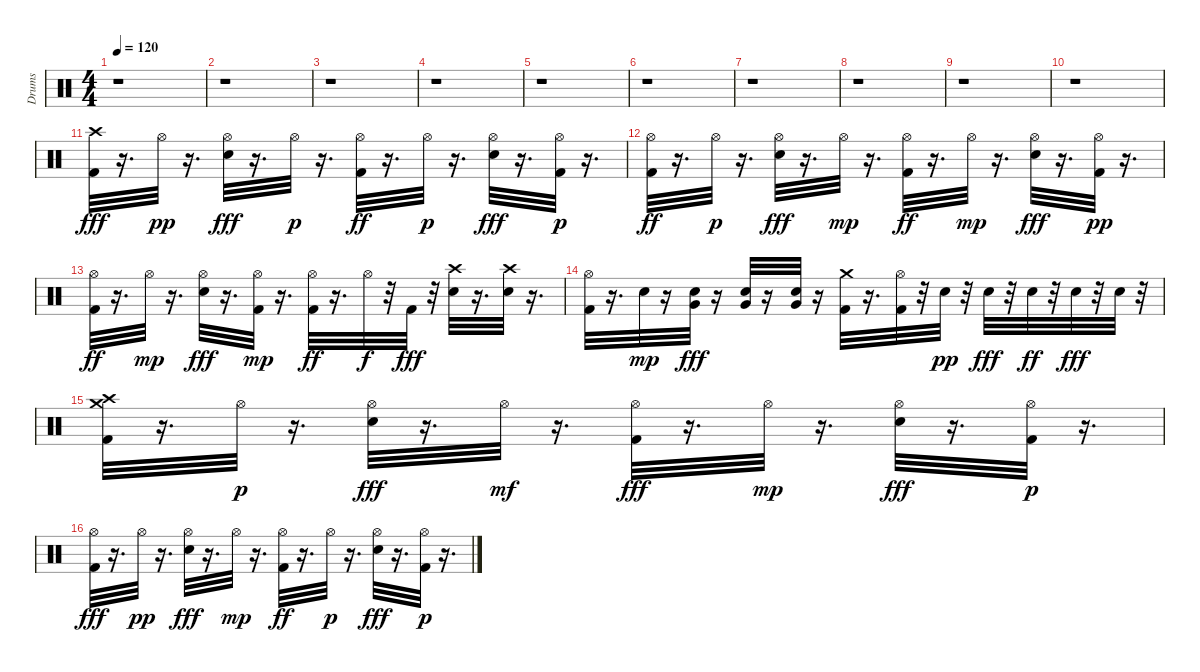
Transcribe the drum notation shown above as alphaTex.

\track ("Drums" "Drums") {instrument percussion}
\staff {score}
\articulation defaults
\ts (4 4)
\tempo 120
\clef neutral
\ks c
r.1{dy f} |
r.1 |
r.1 |
r.1 |
r.1 |
r.1 |
r.1 |
r.1 |
r.1 |
r.1 |
("Crash high (hit)" "Kick (hit) 2").32{dy fff} r.16{d} "Hi-Hat (open)".32{dy pp} r.16{d} ("Snare (hit) 2" "Hi-Hat (open)").32{dy fff} r.16{d} "Hi-Hat (open)".32{dy p} r.16{d} ("Kick (hit) 2" "Hi-Hat (open)").32{dy ff} r.16{d} "Hi-Hat (open)".32{dy p} r.16{d} ("Snare (hit) 2" "Hi-Hat (open)").32{dy fff} r.16{d} ("Kick (hit) 2" "Hi-Hat (open)").32{dy p} r.16{d} |
("Kick (hit) 2" "Hi-Hat (open)").32{dy ff} r.16{d} "Hi-Hat (open)".32{dy p} r.16{d} ("Snare (hit) 2" "Hi-Hat (open)").32{dy fff} r.16{d} "Hi-Hat (open)".32{dy mp} r.16{d} ("Kick (hit) 2" "Hi-Hat (open)").32{dy ff} r.16{d} "Hi-Hat (open)".32{dy mp} r.16{d} ("Snare (hit) 2" "Hi-Hat (open)").32{dy fff} r.16{d} ("Kick (hit) 2" "Hi-Hat (open)").32{dy pp} r.16{d} |
("Kick (hit) 2" "Hi-Hat (open)").32{dy ff} r.16{d} "Hi-Hat (open)".32{dy mp} r.16{d} ("Snare (hit) 2" "Hi-Hat (open)").32{dy fff} r.16{d} ("Kick (hit) 2" "Hi-Hat (open)").32{dy mp} r.16{d} ("Kick (hit) 2" "Hi-Hat (open)").32{dy ff} r.16{d} "Hi-Hat (open)".32{dy f} r.32 "Kick (hit) 2".32{dy fff} r.32 ("Snare (hit) 2" "Crash high (hit)").32 r.16{d} ("Snare (hit) 2" "Crash high (hit)").32 r.16{d} |
("Kick (hit) 2" "Hi-Hat (open)").32 r.16{d} "Snare (hit) 2".32{dy mp} r.16 ("Snare (hit) 2" "Very Low Tom (hit)").32{dy fff} r.16 ("Snare (hit) 2" "Very Low Tom (hit)").32 r.16 ("Snare (hit) 2" "Very Low Tom (hit)").32 r.16 ("Kick (hit) 2" "Crash medium (hit)").32 r.16{d} ("Kick (hit) 2" "Hi-Hat (open)").32 r.32 "Snare (hit) 2".32{dy pp} r.32 "Snare (hit) 2".32{dy fff} r.32 "Snare (hit) 2".32{dy ff} r.32 "Snare (hit) 2".32{dy fff} r.32 "Snare (hit) 2".32 r.32 |
("Crash high (hit)" "Kick (hit) 2" "Crash medium (hit)").32 r.16{d} "Hi-Hat (open)".32{dy p} r.16{d} ("Snare (hit) 2" "Hi-Hat (open)").32{dy fff} r.16{d} "Hi-Hat (open)".32{dy mf} r.16{d} ("Hi-Hat (open)" "Kick (hit) 2").32{dy fff} r.16{d} "Hi-Hat (open)".32{dy mp} r.16{d} ("Snare (hit) 2" "Hi-Hat (open)").32{dy fff} r.16{d} ("Kick (hit) 2" "Hi-Hat (open)").32{dy p} r.16{d} |
("Kick (hit) 2" "Hi-Hat (open)").32{dy fff} r.16{d} "Hi-Hat (open)".32{dy pp} r.16{d} ("Snare (hit) 2" "Hi-Hat (open)").32{dy fff} r.16{d} "Hi-Hat (open)".32{dy mp} r.16{d} ("Kick (hit) 2" "Hi-Hat (open)").32{dy ff} r.16{d} "Hi-Hat (open)".32{dy p} r.16{d} ("Snare (hit) 2" "Hi-Hat (open)").32{dy fff} r.16{d} ("Kick (hit) 2" "Hi-Hat (open)").32{dy p} r.16{d}
